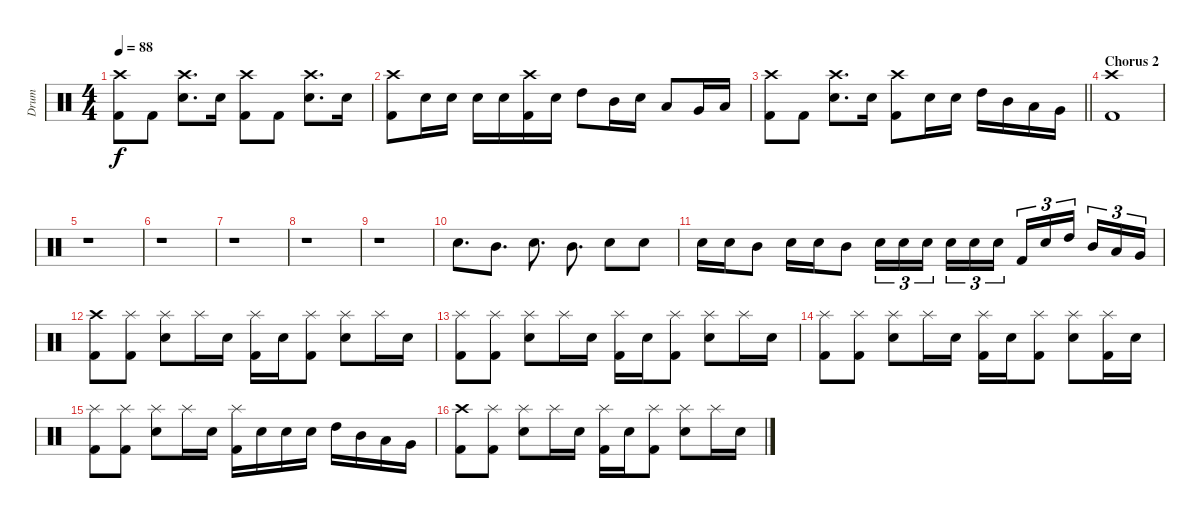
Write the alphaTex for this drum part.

\track ("Drum" "Drum") {instrument percussion}
\staff {score}
\articulation defaults
\ts (4 4)
\tempo 88
\clef neutral
\ks c
("Crash high (hit)" "Kick (hit) 2").8{dy f} "Kick (hit) 2".8 ("Crash high (hit)" "Electric Snare (hit)").8{d} "Electric Snare (hit)".16 ("Crash high (hit)" "Kick (hit) 2").8 "Kick (hit) 2".8 ("Crash high (hit)" "Electric Snare (hit)").8{d} "Electric Snare (hit)".16 |
("Crash high (hit)" "Kick (hit) 2").8 "Electric Snare (hit)".16 "Electric Snare (hit)".16 "Electric Snare (hit)".16 "Electric Snare (hit)".16 ("Crash high (hit)" "Kick (hit) 2").16 "Electric Snare (hit)".16 "High Tom (hit)".8 "Mid Tom (hit)".16 "Electric Snare (hit)".16 "Low Tom (hit)".8 "Very Low Tom (hit)".16 "Low Floor Tom (hit)".16 |
\barLineRight lightlight
("Crash high (hit)" "Kick (hit) 2").8 "Kick (hit) 2".8 ("Crash high (hit)" "Electric Snare (hit)").8{d} "Electric Snare (hit)".16 ("Crash high (hit)" "Kick (hit) 2").8 "Electric Snare (hit)".16 "Electric Snare (hit)".16 "High Tom (hit)".16 "Mid Tom (hit)".16 "Low Tom (hit)".16 "Very Low Tom (hit)".16 |
\section ("" "Chorus 2")
("Crash high (hit)" "Kick (hit) 2").1 |
r.1 |
r.1 |
r.1 |
r.1 |
r.1 |
"Electric Snare (hit)".8{d} "Mid Tom (hit)".8{d} "Electric Snare (hit)".8{d} "Mid Tom (hit)".8{d} "Electric Snare (hit)".8 "Electric Snare (hit)".8 |
"Electric Snare (hit)".16 "Electric Snare (hit)".16 "Mid Tom (hit)".8 "Electric Snare (hit)".16 "Electric Snare (hit)".16 "Mid Tom (hit)".8 "Electric Snare (hit)".16{tu (3 2)} "Electric Snare (hit)".16{tu (3 2)} "Electric Snare (hit)".16{tu (3 2) beam splitsecondary} "Electric Snare (hit)".16{tu (3 2)} "Electric Snare (hit)".16{tu (3 2)} "Electric Snare (hit)".16{tu (3 2)} "Kick (hit) 2".16{tu (3 2)} "Electric Snare (hit)".16{tu (3 2)} "High Tom (hit)".16{tu (3 2) beam splitsecondary} "Mid Tom (hit)".16{tu (3 2)} "Low Tom (hit)".16{tu (3 2)} "Very Low Tom (hit)".16{tu (3 2)} |
("Crash high (hit)" "Kick (hit) 2").8 ("Splash (hit)" "Kick (hit) 2").8 ("Splash (hit)" "Electric Snare (hit)").8 "Splash (hit)".16 "Electric Snare (hit)".16 ("Splash (hit)" "Kick (hit) 2").16 "Electric Snare (hit)".16 ("Splash (hit)" "Kick (hit) 2").8 ("Splash (hit)" "Electric Snare (hit)").8 "Splash (hit)".16 "Electric Snare (hit)".16 |
("Splash (hit)" "Kick (hit) 2").8 ("Splash (hit)" "Kick (hit) 2").8 ("Splash (hit)" "Electric Snare (hit)").8 "Splash (hit)".16 "Electric Snare (hit)".16 ("Splash (hit)" "Kick (hit) 2").16 "Electric Snare (hit)".16 ("Splash (hit)" "Kick (hit) 2").8 ("Splash (hit)" "Electric Snare (hit)").8 "Splash (hit)".16 "Electric Snare (hit)".16 |
("Splash (hit)" "Kick (hit) 2").8 ("Splash (hit)" "Kick (hit) 2").8 ("Splash (hit)" "Electric Snare (hit)").8 "Splash (hit)".16 "Electric Snare (hit)".16 ("Splash (hit)" "Kick (hit) 2").16 "Electric Snare (hit)".16 ("Splash (hit)" "Kick (hit) 2").8 ("Splash (hit)" "Electric Snare (hit)").8 ("Splash (hit)" "Kick (hit) 2").16 "Electric Snare (hit)".16 |
("Splash (hit)" "Kick (hit) 2").8 ("Splash (hit)" "Kick (hit) 2").8 ("Splash (hit)" "Electric Snare (hit)").8 "Splash (hit)".16 "Electric Snare (hit)".16 ("Splash (hit)" "Kick (hit) 2").16 "Electric Snare (hit)".16 "Electric Snare (hit)".16 "Electric Snare (hit)".16 "High Tom (hit)".16 "Mid Tom (hit)".16 "Low Tom (hit)".16 "Very Low Tom (hit)".16 |
("Crash high (hit)" "Kick (hit) 2").8 ("Splash (hit)" "Kick (hit) 2").8 ("Splash (hit)" "Electric Snare (hit)").8 "Splash (hit)".16 "Electric Snare (hit)".16 ("Splash (hit)" "Kick (hit) 2").16 "Electric Snare (hit)".16 ("Splash (hit)" "Kick (hit) 2").8 ("Splash (hit)" "Electric Snare (hit)").8 "Splash (hit)".16 "Electric Snare (hit)".16
